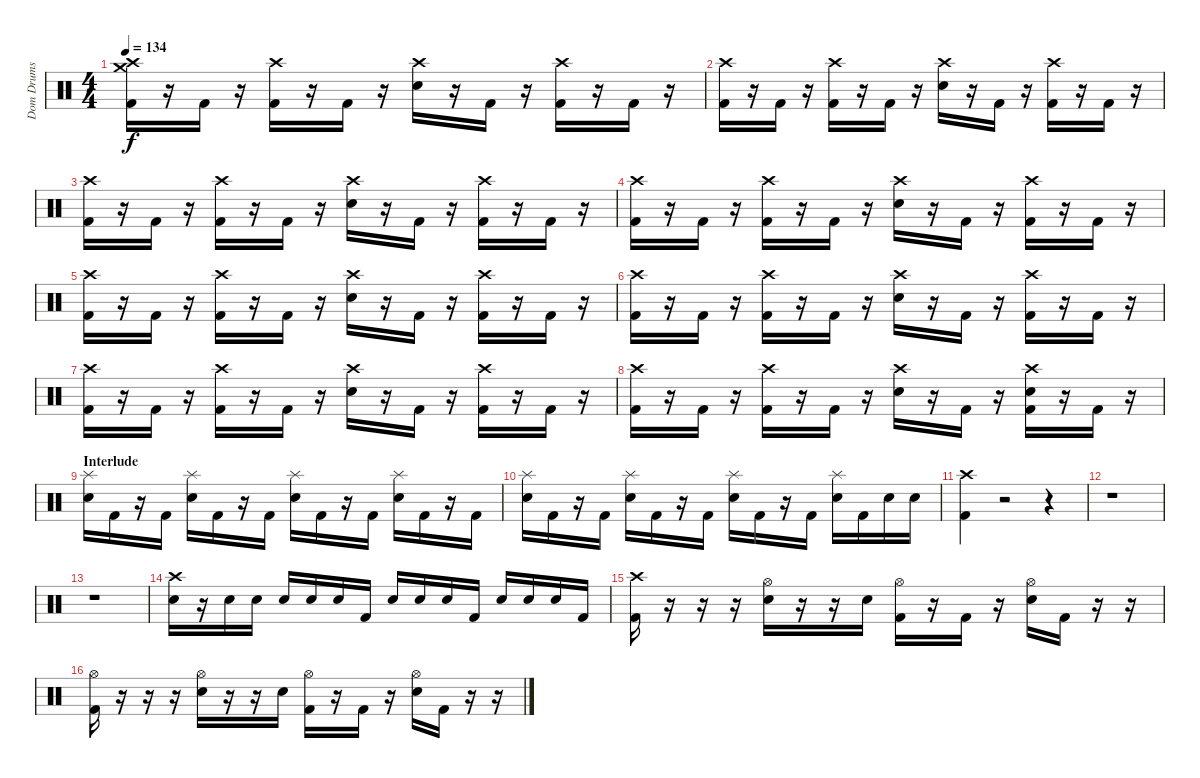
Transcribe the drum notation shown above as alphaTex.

\track ("Dom Drums" "Dom Drums") {instrument percussion}
\staff {score}
\articulation defaults
\ts (4 4)
\tempo 134
\clef neutral
\ks c
("Crash high (hit)" "Crash medium (hit)" "Kick (hit) 2").16{dy f} r.16 "Kick (hit) 2".16 r.16 ("Crash high (hit)" "Kick (hit) 2").16 r.16 "Kick (hit) 2".16 r.16 ("Crash high (hit)" "Electric Snare (hit)").16 r.16 "Kick (hit) 2".16 r.16 ("Crash high (hit)" "Kick (hit) 2").16 r.16 "Kick (hit) 2".16 r.16 |
("Crash high (hit)" "Kick (hit) 2").16 r.16 "Kick (hit) 2".16 r.16 ("Crash high (hit)" "Kick (hit) 2").16 r.16 "Kick (hit) 2".16 r.16 ("Crash high (hit)" "Electric Snare (hit)").16 r.16 "Kick (hit) 2".16 r.16 ("Crash high (hit)" "Kick (hit) 2").16 r.16 "Kick (hit) 2".16 r.16 |
("Crash high (hit)" "Kick (hit) 2").16 r.16 "Kick (hit) 2".16 r.16 ("Crash high (hit)" "Kick (hit) 2").16 r.16 "Kick (hit) 2".16 r.16 ("Crash high (hit)" "Electric Snare (hit)").16 r.16 "Kick (hit) 2".16 r.16 ("Crash high (hit)" "Kick (hit) 2").16 r.16 "Kick (hit) 2".16 r.16 |
("Crash high (hit)" "Kick (hit) 2").16 r.16 "Kick (hit) 2".16 r.16 ("Crash high (hit)" "Kick (hit) 2").16 r.16 "Kick (hit) 2".16 r.16 ("Crash high (hit)" "Electric Snare (hit)").16 r.16 "Kick (hit) 2".16 r.16 ("Crash high (hit)" "Kick (hit) 2").16 r.16 "Kick (hit) 2".16 r.16 |
("Crash high (hit)" "Kick (hit) 2").16 r.16 "Kick (hit) 2".16 r.16 ("Crash high (hit)" "Kick (hit) 2").16 r.16 "Kick (hit) 2".16 r.16 ("Crash high (hit)" "Electric Snare (hit)").16 r.16 "Kick (hit) 2".16 r.16 ("Crash high (hit)" "Kick (hit) 2").16 r.16 "Kick (hit) 2".16 r.16 |
("Crash high (hit)" "Kick (hit) 2").16 r.16 "Kick (hit) 2".16 r.16 ("Crash high (hit)" "Kick (hit) 2").16 r.16 "Kick (hit) 2".16 r.16 ("Crash high (hit)" "Electric Snare (hit)").16 r.16 "Kick (hit) 2".16 r.16 ("Crash high (hit)" "Kick (hit) 2").16 r.16 "Kick (hit) 2".16 r.16 |
("Crash high (hit)" "Kick (hit) 2").16 r.16 "Kick (hit) 2".16 r.16 ("Crash high (hit)" "Kick (hit) 2").16 r.16 "Kick (hit) 2".16 r.16 ("Crash high (hit)" "Electric Snare (hit)").16 r.16 "Kick (hit) 2".16 r.16 ("Crash high (hit)" "Kick (hit) 2").16 r.16 "Kick (hit) 2".16 r.16 |
("Crash high (hit)" "Kick (hit) 2").16 r.16 "Kick (hit) 2".16 r.16 ("Crash high (hit)" "Kick (hit) 2").16 r.16 "Kick (hit) 2".16 r.16 ("Crash high (hit)" "Electric Snare (hit)").16 r.16 "Kick (hit) 2".16 r.16 ("Crash high (hit)" "Electric Snare (hit)" "Kick (hit) 2").16 r.16 "Kick (hit) 2".16 r.16 |
\section ("" "Interlude")
("Splash (hit)" "Electric Snare (hit)").16 "Kick (hit) 2".16 r.16 "Kick (hit) 2".16 ("Splash (hit)" "Electric Snare (hit)").16 "Kick (hit) 2".16 r.16 "Kick (hit) 2".16 ("Splash (hit)" "Electric Snare (hit)").16 "Kick (hit) 2".16 r.16 "Kick (hit) 2".16 ("Splash (hit)" "Electric Snare (hit)").16 "Kick (hit) 2".16 r.16 "Kick (hit) 2".16 |
("Splash (hit)" "Electric Snare (hit)").16 "Kick (hit) 2".16 r.16 "Kick (hit) 2".16 ("Splash (hit)" "Electric Snare (hit)").16 "Kick (hit) 2".16 r.16 "Kick (hit) 2".16 ("Splash (hit)" "Electric Snare (hit)").16 "Kick (hit) 2".16 r.16 "Kick (hit) 2".16 ("Splash (hit)" "Electric Snare (hit)").16 "Kick (hit) 2".16 "Electric Snare (hit)".16 "Electric Snare (hit)".16 |
("Crash high (hit)" "Kick (hit) 2").4 r.2 r.4 |
r.1 |
r.1 |
("Crash high (hit)" "Electric Snare (hit)").16 r.16 "Electric Snare (hit)".16 "Electric Snare (hit)".16 "Electric Snare (hit)".16 "Electric Snare (hit)".16 "Electric Snare (hit)".16 "Kick (hit) 2".16 "Electric Snare (hit)".16 "Electric Snare (hit)".16 "Electric Snare (hit)".16 "Kick (hit) 2".16 "Electric Snare (hit)".16 "Electric Snare (hit)".16 "Electric Snare (hit)".16 "Kick (hit) 2".16 |
("Crash high (hit)" "Kick (hit) 2").16 r.16 r.16 r.16 ("Hi-Hat (open)" "Electric Snare (hit)").16 r.16 r.16 "Electric Snare (hit)".16 ("Hi-Hat (open)" "Kick (hit) 2").16 r.16 "Kick (hit) 2".16 r.16 ("Hi-Hat (open)" "Electric Snare (hit)").16 "Kick (hit) 2".16 r.16 r.16 |
("Hi-Hat (open)" "Kick (hit) 2").16 r.16 r.16 r.16 ("Hi-Hat (open)" "Electric Snare (hit)").16 r.16 r.16 "Electric Snare (hit)".16 ("Hi-Hat (open)" "Kick (hit) 2").16 r.16 "Kick (hit) 2".16 r.16 ("Hi-Hat (open)" "Electric Snare (hit)").16 "Kick (hit) 2".16 r.16 r.16
